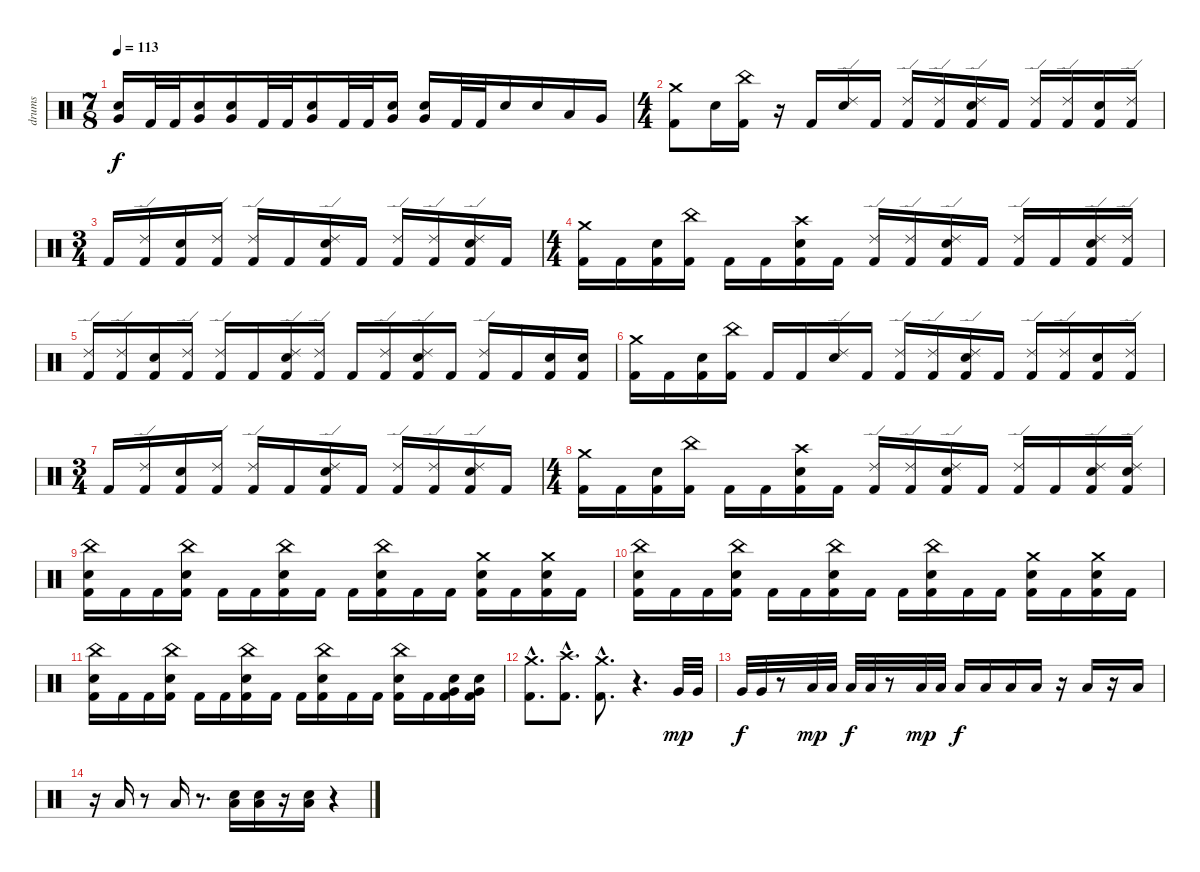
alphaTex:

\track ("drums" "drums") {instrument percussion}
\staff {score}
\articulation defaults
\ts (7 8)
\tempo 113
\clef neutral
\ks c
("Very Low Tom (hit)" "Electric Snare (hit)").16{dy f} "Kick (hit) 2".32 "Kick (hit) 2".32 ("Very Low Tom (hit)" "Electric Snare (hit)").16 ("Very Low Tom (hit)" "Electric Snare (hit)").16 "Kick (hit) 2".32 "Kick (hit) 2".32 ("Very Low Tom (hit)" "Electric Snare (hit)").16 "Kick (hit) 2".32 "Kick (hit) 2".32 ("Very Low Tom (hit)" "Electric Snare (hit)").16 ("Very Low Tom (hit)" "Electric Snare (hit)").16 "Kick (hit) 2".32 "Kick (hit) 2".32 "Electric Snare (hit)".16 "Electric Snare (hit)".16 "Low Tom (hit)".16 "Very Low Tom (hit)".16 |
\ts (4 4)
("Crash medium (hit)" "Kick (hit) 2").8 "Electric Snare (hit)".16 ("China (hit)" "Kick (hit) 2").16 r.16 "Kick (hit) 2".16 ("Ride (edge) 2" "Electric Snare (hit)").16 "Kick (hit) 2".16 ("Ride (edge) 2" "Kick (hit) 2").16 ("Ride (edge) 2" "Kick (hit) 2").16 ("Ride (edge) 2" "Kick (hit) 2" "Electric Snare (hit)").16 "Kick (hit) 2".16 ("Ride (edge) 2" "Kick (hit) 2").16 ("Ride (edge) 2" "Kick (hit) 2").16 ("Electric Snare (hit)" "Kick (hit) 2").16 ("Ride (edge) 2" "Kick (hit) 2").16 |
\ts (3 4)
"Kick (hit) 2".16 ("Ride (edge) 2" "Kick (hit) 2").16 ("Electric Snare (hit)" "Kick (hit) 2").16 ("Ride (edge) 2" "Kick (hit) 2").16 ("Ride (edge) 2" "Kick (hit) 2").16 "Kick (hit) 2".16 ("Ride (edge) 2" "Electric Snare (hit)" "Kick (hit) 2").16 "Kick (hit) 2".16 ("Ride (edge) 2" "Kick (hit) 2").16 ("Ride (edge) 2" "Kick (hit) 2").16 ("Ride (edge) 2" "Electric Snare (hit)" "Kick (hit) 2").16 "Kick (hit) 2".16 |
\ts (4 4)
("Crash medium (hit)" "Kick (hit) 2").16 "Kick (hit) 2".16 ("Electric Snare (hit)" "Kick (hit) 2").16 ("China (hit)" "Kick (hit) 2").16 "Kick (hit) 2".16 "Kick (hit) 2".16 ("Crash high (hit)" "Electric Snare (hit)" "Kick (hit) 2").16 "Kick (hit) 2".16 ("Ride (edge) 2" "Kick (hit) 2").16 ("Ride (edge) 2" "Kick (hit) 2").16 ("Ride (edge) 2" "Electric Snare (hit)" "Kick (hit) 2").16 "Kick (hit) 2".16 ("Ride (edge) 2" "Kick (hit) 2").16 "Kick (hit) 2".16 ("Ride (edge) 2" "Electric Snare (hit)" "Kick (hit) 2").16 ("Ride (edge) 2" "Kick (hit) 2").16 |
("Ride (edge) 2" "Kick (hit) 2").16 ("Ride (edge) 2" "Kick (hit) 2").16 ("Electric Snare (hit)" "Kick (hit) 2").16 ("Ride (edge) 2" "Kick (hit) 2").16 ("Ride (edge) 2" "Kick (hit) 2").16 "Kick (hit) 2".16 ("Ride (edge) 2" "Electric Snare (hit)" "Kick (hit) 2").16 ("Ride (edge) 2" "Kick (hit) 2").16 "Kick (hit) 2".16 ("Ride (edge) 2" "Kick (hit) 2").16 ("Ride (edge) 2" "Electric Snare (hit)" "Kick (hit) 2").16 "Kick (hit) 2".16 ("Ride (edge) 2" "Kick (hit) 2").16 "Kick (hit) 2".16 ("Electric Snare (hit)" "Kick (hit) 2").16 ("Electric Snare (hit)" "Kick (hit) 2").16 |
("Crash medium (hit)" "Kick (hit) 2").16 "Kick (hit) 2".16 ("Kick (hit) 2" "Electric Snare (hit)").16 ("China (hit)" "Kick (hit) 2").16 "Kick (hit) 2".16 "Kick (hit) 2".16 ("Ride (edge) 2" "Electric Snare (hit)").16 "Kick (hit) 2".16 ("Ride (edge) 2" "Kick (hit) 2").16 ("Ride (edge) 2" "Kick (hit) 2").16 ("Ride (edge) 2" "Kick (hit) 2" "Electric Snare (hit)").16 "Kick (hit) 2".16 ("Ride (edge) 2" "Kick (hit) 2").16 ("Ride (edge) 2" "Kick (hit) 2").16 ("Electric Snare (hit)" "Kick (hit) 2").16 ("Ride (edge) 2" "Kick (hit) 2").16 |
\ts (3 4)
"Kick (hit) 2".16 ("Ride (edge) 2" "Kick (hit) 2").16 ("Electric Snare (hit)" "Kick (hit) 2").16 ("Ride (edge) 2" "Kick (hit) 2").16 ("Ride (edge) 2" "Kick (hit) 2").16 "Kick (hit) 2".16 ("Ride (edge) 2" "Electric Snare (hit)" "Kick (hit) 2").16 "Kick (hit) 2".16 ("Ride (edge) 2" "Kick (hit) 2").16 ("Ride (edge) 2" "Kick (hit) 2").16 ("Ride (edge) 2" "Electric Snare (hit)" "Kick (hit) 2").16 "Kick (hit) 2".16 |
\ts (4 4)
("Crash medium (hit)" "Kick (hit) 2").16 "Kick (hit) 2".16 ("Electric Snare (hit)" "Kick (hit) 2").16 ("China (hit)" "Kick (hit) 2").16 "Kick (hit) 2".16 "Kick (hit) 2".16 ("Crash high (hit)" "Electric Snare (hit)" "Kick (hit) 2").16 "Kick (hit) 2".16 ("Ride (edge) 2" "Kick (hit) 2").16 ("Ride (edge) 2" "Kick (hit) 2").16 ("Ride (edge) 2" "Electric Snare (hit)" "Kick (hit) 2").16 "Kick (hit) 2".16 ("Ride (edge) 2" "Kick (hit) 2").16 "Kick (hit) 2".16 ("Ride (edge) 2" "Electric Snare (hit)" "Kick (hit) 2").16 ("Ride (edge) 2" "Electric Snare (hit)" "Kick (hit) 2").16 |
("China (hit)" "Kick (hit) 2" "Electric Snare (hit)").16 "Kick (hit) 2".16 "Kick (hit) 2".16 ("China (hit)" "Electric Snare (hit)" "Kick (hit) 2").16 "Kick (hit) 2".16 "Kick (hit) 2".16 ("China (hit)" "Electric Snare (hit)" "Kick (hit) 2").16 "Kick (hit) 2".16 "Kick (hit) 2".16 ("China (hit)" "Electric Snare (hit)" "Kick (hit) 2").16 "Kick (hit) 2".16 "Kick (hit) 2".16 ("Crash medium (hit)" "Electric Snare (hit)" "Kick (hit) 2").16 "Kick (hit) 2".16 ("Crash medium (hit)" "Electric Snare (hit)" "Kick (hit) 2").16 "Kick (hit) 2".16 |
("China (hit)" "Kick (hit) 2" "Electric Snare (hit)").16 "Kick (hit) 2".16 "Kick (hit) 2".16 ("China (hit)" "Electric Snare (hit)" "Kick (hit) 2").16 "Kick (hit) 2".16 "Kick (hit) 2".16 ("China (hit)" "Electric Snare (hit)" "Kick (hit) 2").16 "Kick (hit) 2".16 "Kick (hit) 2".16 ("China (hit)" "Electric Snare (hit)" "Kick (hit) 2").16 "Kick (hit) 2".16 "Kick (hit) 2".16 ("Crash medium (hit)" "Kick (hit) 2" "Electric Snare (hit)").16 "Kick (hit) 2".16 ("Crash medium (hit)" "Electric Snare (hit)" "Kick (hit) 2").16 "Kick (hit) 2".16 |
("China (hit)" "Kick (hit) 2" "Electric Snare (hit)").16 "Kick (hit) 2".16 "Kick (hit) 2".16 ("China (hit)" "Electric Snare (hit)" "Kick (hit) 2").16 "Kick (hit) 2".16 "Kick (hit) 2".16 ("China (hit)" "Electric Snare (hit)" "Kick (hit) 2").16 "Kick (hit) 2".16 "Kick (hit) 2".16 ("China (hit)" "Electric Snare (hit)" "Kick (hit) 2").16 "Kick (hit) 2".16 "Kick (hit) 2".16 ("China (hit)" "Kick (hit) 2" "Electric Snare (hit)").16 "Kick (hit) 2".16 ("Very Low Tom (hit)" "Electric Snare (hit)" "Kick (hit) 2").16 ("Very Low Tom (hit)" "Electric Snare (hit)" "Kick (hit) 2").16 |
("Crash medium (hit)"{hac} "Kick (hit) 2"{hac}).8{d} ("Crash high (hit)"{hac} "Kick (hit) 2"{hac}).8{d} ("Crash medium (hit)"{hac} "Kick (hit) 2"{hac}).8{d} r.4{d} "Very Low Tom (hit)".32{dy mp} "Very Low Tom (hit)".32 |
"Very Low Tom (hit)".32{dy f} "Very Low Tom (hit)".32 r.8 "Low Floor Tom (hit)".32{dy mp} "Low Floor Tom (hit)".32 "Low Floor Tom (hit)".32{dy f} "Low Floor Tom (hit)".32 r.8 "Low Floor Tom (hit)".32{dy mp} "Low Floor Tom (hit)".32 "Low Floor Tom (hit)".16{dy f} "Low Floor Tom (hit)".16 "Low Floor Tom (hit)".16 "Low Floor Tom (hit)".16 r.16 "Low Floor Tom (hit)".16 r.16 "Low Floor Tom (hit)".16 |
r.16 "Low Floor Tom (hit)".16 r.8 "Low Floor Tom (hit)".16 r.8{d} ("Low Tom (hit)" "Electric Snare (hit)").16 ("Low Tom (hit)" "Electric Snare (hit)").16 r.16 ("Low Tom (hit)" "Electric Snare (hit)").16 r.4
